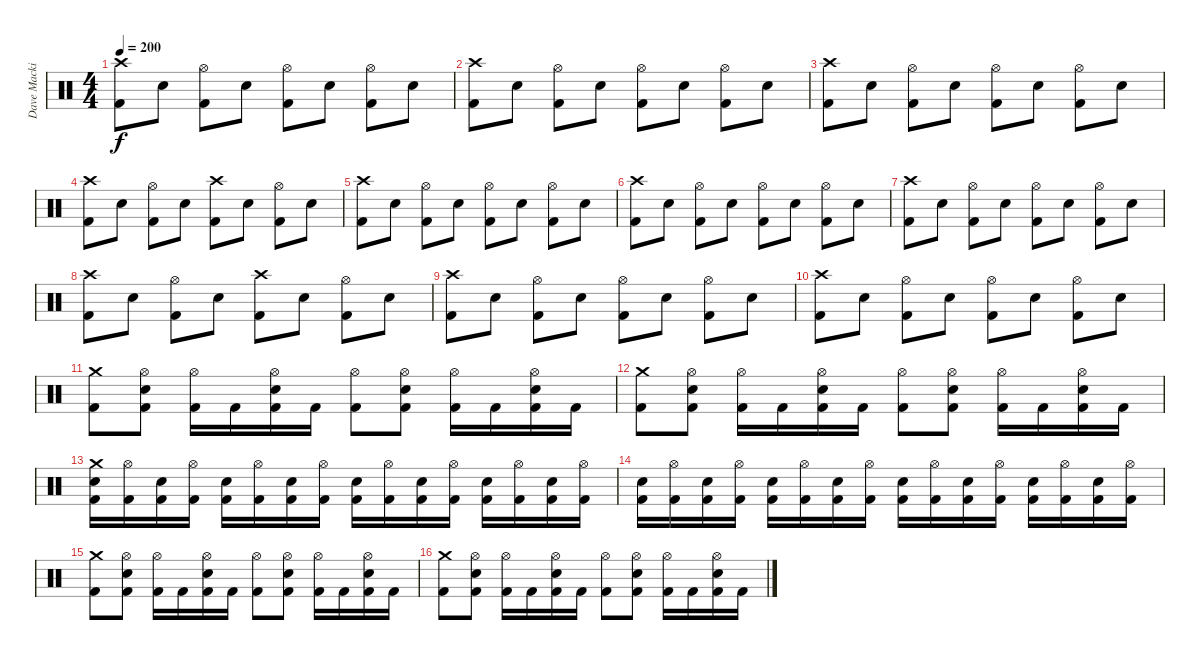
\track ("Dave Mackintosh | Drums" "Dave Macki") {instrument percussion}
\staff {score}
\articulation defaults
\ts (4 4)
\tempo 200
\clef neutral
\ks c
("Crash high (hit)" "Kick (hit) 2").8{dy f} "Snare (hit) 2".8 ("Hi-Hat (open)" "Kick (hit) 2").8 "Snare (hit) 2".8 ("Hi-Hat (open)" "Kick (hit) 2").8 "Snare (hit) 2".8 ("Hi-Hat (open)" "Kick (hit) 2").8 "Snare (hit) 2".8 |
("Crash high (hit)" "Kick (hit) 2").8 "Snare (hit) 2".8 ("Hi-Hat (open)" "Kick (hit) 2").8 "Snare (hit) 2".8 ("Hi-Hat (open)" "Kick (hit) 2").8 "Snare (hit) 2".8 ("Hi-Hat (open)" "Kick (hit) 2").8 "Snare (hit) 2".8 |
("Crash high (hit)" "Kick (hit) 2").8 "Snare (hit) 2".8 ("Hi-Hat (open)" "Kick (hit) 2").8 "Snare (hit) 2".8 ("Hi-Hat (open)" "Kick (hit) 2").8 "Snare (hit) 2".8 ("Hi-Hat (open)" "Kick (hit) 2").8 "Snare (hit) 2".8 |
("Crash high (hit)" "Kick (hit) 2").8 "Snare (hit) 2".8 ("Hi-Hat (open)" "Kick (hit) 2").8 "Snare (hit) 2".8 ("Crash high (hit)" "Kick (hit) 2").8 "Snare (hit) 2".8 ("Hi-Hat (open)" "Kick (hit) 2").8 "Snare (hit) 2".8 |
("Crash high (hit)" "Kick (hit) 2").8 "Snare (hit) 2".8 ("Hi-Hat (open)" "Kick (hit) 2").8 "Snare (hit) 2".8 ("Hi-Hat (open)" "Kick (hit) 2").8 "Snare (hit) 2".8 ("Hi-Hat (open)" "Kick (hit) 2").8 "Snare (hit) 2".8 |
("Crash high (hit)" "Kick (hit) 2").8 "Snare (hit) 2".8 ("Hi-Hat (open)" "Kick (hit) 2").8 "Snare (hit) 2".8 ("Hi-Hat (open)" "Kick (hit) 2").8 "Snare (hit) 2".8 ("Hi-Hat (open)" "Kick (hit) 2").8 "Snare (hit) 2".8 |
("Crash high (hit)" "Kick (hit) 2").8 "Snare (hit) 2".8 ("Hi-Hat (open)" "Kick (hit) 2").8 "Snare (hit) 2".8 ("Hi-Hat (open)" "Kick (hit) 2").8 "Snare (hit) 2".8 ("Hi-Hat (open)" "Kick (hit) 2").8 "Snare (hit) 2".8 |
("Crash high (hit)" "Kick (hit) 2").8 "Snare (hit) 2".8 ("Hi-Hat (open)" "Kick (hit) 2").8 "Snare (hit) 2".8 ("Crash high (hit)" "Kick (hit) 2").8 "Snare (hit) 2".8 ("Hi-Hat (open)" "Kick (hit) 2").8 "Snare (hit) 2".8 |
("Crash high (hit)" "Kick (hit) 2").8 "Snare (hit) 2".8 ("Hi-Hat (open)" "Kick (hit) 2").8 "Snare (hit) 2".8 ("Hi-Hat (open)" "Kick (hit) 2").8 "Snare (hit) 2".8 ("Hi-Hat (open)" "Kick (hit) 2").8 "Snare (hit) 2".8 |
("Crash high (hit)" "Kick (hit) 2").8 "Snare (hit) 2".8 ("Hi-Hat (open)" "Kick (hit) 2").8 "Snare (hit) 2".8 ("Hi-Hat (open)" "Kick (hit) 2").8 "Snare (hit) 2".8 ("Hi-Hat (open)" "Kick (hit) 2").8 "Snare (hit) 2".8 |
("Crash medium (hit)" "Kick (hit) 2").8 ("Hi-Hat (open)" "Snare (hit) 2" "Kick (hit) 2").8 ("Hi-Hat (open)" "Kick (hit) 2").16 "Kick (hit) 2".16 ("Hi-Hat (open)" "Snare (hit) 2" "Kick (hit) 2").16 "Kick (hit) 2".16 ("Hi-Hat (open)" "Kick (hit) 2").8 ("Hi-Hat (open)" "Snare (hit) 2" "Kick (hit) 2").8 ("Hi-Hat (open)" "Kick (hit) 2").16 "Kick (hit) 2".16 ("Hi-Hat (open)" "Snare (hit) 2" "Kick (hit) 2").16 "Kick (hit) 2".16 |
("Crash medium (hit)" "Kick (hit) 2").8 ("Hi-Hat (open)" "Snare (hit) 2" "Kick (hit) 2").8 ("Hi-Hat (open)" "Kick (hit) 2").16 "Kick (hit) 2".16 ("Hi-Hat (open)" "Snare (hit) 2" "Kick (hit) 2").16 "Kick (hit) 2".16 ("Hi-Hat (open)" "Kick (hit) 2").8 ("Hi-Hat (open)" "Snare (hit) 2" "Kick (hit) 2").8 ("Hi-Hat (open)" "Kick (hit) 2").16 "Kick (hit) 2".16 ("Hi-Hat (open)" "Snare (hit) 2" "Kick (hit) 2").16 "Kick (hit) 2".16 |
("Crash medium (hit)" "Snare (hit) 2" "Kick (hit) 2").16 ("Hi-Hat (open)" "Kick (hit) 2").16 ("Snare (hit) 2" "Kick (hit) 2").16 ("Hi-Hat (open)" "Kick (hit) 2").16 ("Snare (hit) 2" "Kick (hit) 2").16 ("Hi-Hat (open)" "Kick (hit) 2").16 ("Snare (hit) 2" "Kick (hit) 2").16 ("Hi-Hat (open)" "Kick (hit) 2").16 ("Snare (hit) 2" "Kick (hit) 2").16 ("Hi-Hat (open)" "Kick (hit) 2").16 ("Snare (hit) 2" "Kick (hit) 2").16 ("Hi-Hat (open)" "Kick (hit) 2").16 ("Snare (hit) 2" "Kick (hit) 2").16 ("Hi-Hat (open)" "Kick (hit) 2").16 ("Snare (hit) 2" "Kick (hit) 2").16 ("Hi-Hat (open)" "Kick (hit) 2").16 |
("Snare (hit) 2" "Kick (hit) 2").16 ("Hi-Hat (open)" "Kick (hit) 2").16 ("Snare (hit) 2" "Kick (hit) 2").16 ("Hi-Hat (open)" "Kick (hit) 2").16 ("Snare (hit) 2" "Kick (hit) 2").16 ("Hi-Hat (open)" "Kick (hit) 2").16 ("Snare (hit) 2" "Kick (hit) 2").16 ("Hi-Hat (open)" "Kick (hit) 2").16 ("Snare (hit) 2" "Kick (hit) 2").16 ("Hi-Hat (open)" "Kick (hit) 2").16 ("Snare (hit) 2" "Kick (hit) 2").16 ("Hi-Hat (open)" "Kick (hit) 2").16 ("Snare (hit) 2" "Kick (hit) 2").16 ("Hi-Hat (open)" "Kick (hit) 2").16 ("Snare (hit) 2" "Kick (hit) 2").16 ("Hi-Hat (open)" "Kick (hit) 2").16 |
("Crash medium (hit)" "Kick (hit) 2").8 ("Hi-Hat (open)" "Snare (hit) 2" "Kick (hit) 2").8 ("Hi-Hat (open)" "Kick (hit) 2").16 "Kick (hit) 2".16 ("Hi-Hat (open)" "Snare (hit) 2" "Kick (hit) 2").16 "Kick (hit) 2".16 ("Hi-Hat (open)" "Kick (hit) 2").8 ("Hi-Hat (open)" "Snare (hit) 2" "Kick (hit) 2").8 ("Hi-Hat (open)" "Kick (hit) 2").16 "Kick (hit) 2".16 ("Hi-Hat (open)" "Snare (hit) 2" "Kick (hit) 2").16 "Kick (hit) 2".16 |
("Crash medium (hit)" "Kick (hit) 2").8 ("Hi-Hat (open)" "Snare (hit) 2" "Kick (hit) 2").8 ("Hi-Hat (open)" "Kick (hit) 2").16 "Kick (hit) 2".16 ("Hi-Hat (open)" "Snare (hit) 2" "Kick (hit) 2").16 "Kick (hit) 2".16 ("Hi-Hat (open)" "Kick (hit) 2").8 ("Hi-Hat (open)" "Snare (hit) 2" "Kick (hit) 2").8 ("Hi-Hat (open)" "Kick (hit) 2").16 "Kick (hit) 2".16 ("Hi-Hat (open)" "Snare (hit) 2" "Kick (hit) 2").16 "Kick (hit) 2".16
